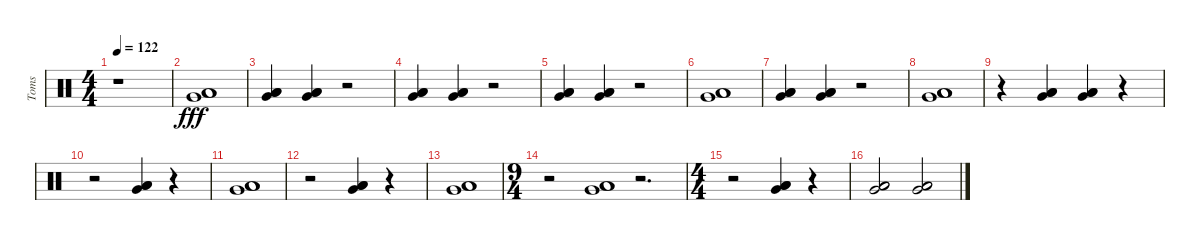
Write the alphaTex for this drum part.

\track ("Toms" "Toms") {instrument percussion}
\staff {score}
\articulation defaults
\ts (4 4)
\tempo 122
\clef neutral
\ks c
r.1{dy fff} |
("Low Tom (hit)" "Very Low Tom (hit)" "Low Tom (hit)").1 |
("Low Tom (hit)" "Very Low Tom (hit)" "Low Tom (hit)").4 ("Low Tom (hit)" "Very Low Tom (hit)" "Low Tom (hit)").4 r.2 |
("Low Tom (hit)" "Very Low Tom (hit)" "Low Tom (hit)").4 ("Low Tom (hit)" "Very Low Tom (hit)" "Low Tom (hit)").4 r.2 |
("Low Tom (hit)" "Very Low Tom (hit)" "Low Tom (hit)").4 ("Low Tom (hit)" "Very Low Tom (hit)" "Low Tom (hit)").4 r.2 |
("Low Tom (hit)" "Very Low Tom (hit)" "Low Tom (hit)").1 |
("Low Tom (hit)" "Very Low Tom (hit)" "Low Tom (hit)").4 ("Low Tom (hit)" "Very Low Tom (hit)" "Low Tom (hit)").4 r.2 |
("Low Tom (hit)" "Very Low Tom (hit)" "Low Tom (hit)").1 |
r.4 ("Low Tom (hit)" "Very Low Tom (hit)" "Low Tom (hit)").4 ("Low Tom (hit)" "Very Low Tom (hit)" "Low Tom (hit)").4 r.4 |
r.2 ("Low Tom (hit)" "Very Low Tom (hit)" "Low Tom (hit)").4 r.4 |
("Low Tom (hit)" "Very Low Tom (hit)" "Low Tom (hit)").1 |
r.2 ("Low Tom (hit)" "Very Low Tom (hit)" "Low Tom (hit)").4 r.4 |
("Low Tom (hit)" "Very Low Tom (hit)" "Low Tom (hit)").1 |
\ts (9 4)
r.2 ("Very Low Tom (hit)" "Low Tom (hit)" "Low Tom (hit)").1 r.2{d} |
\ts (4 4)
r.2 ("Low Tom (hit)" "Very Low Tom (hit)" "Low Tom (hit)").4 r.4 |
("Low Tom (hit)" "Very Low Tom (hit)" "Low Tom (hit)").2 ("Low Tom (hit)" "Very Low Tom (hit)" "Low Tom (hit)").2
